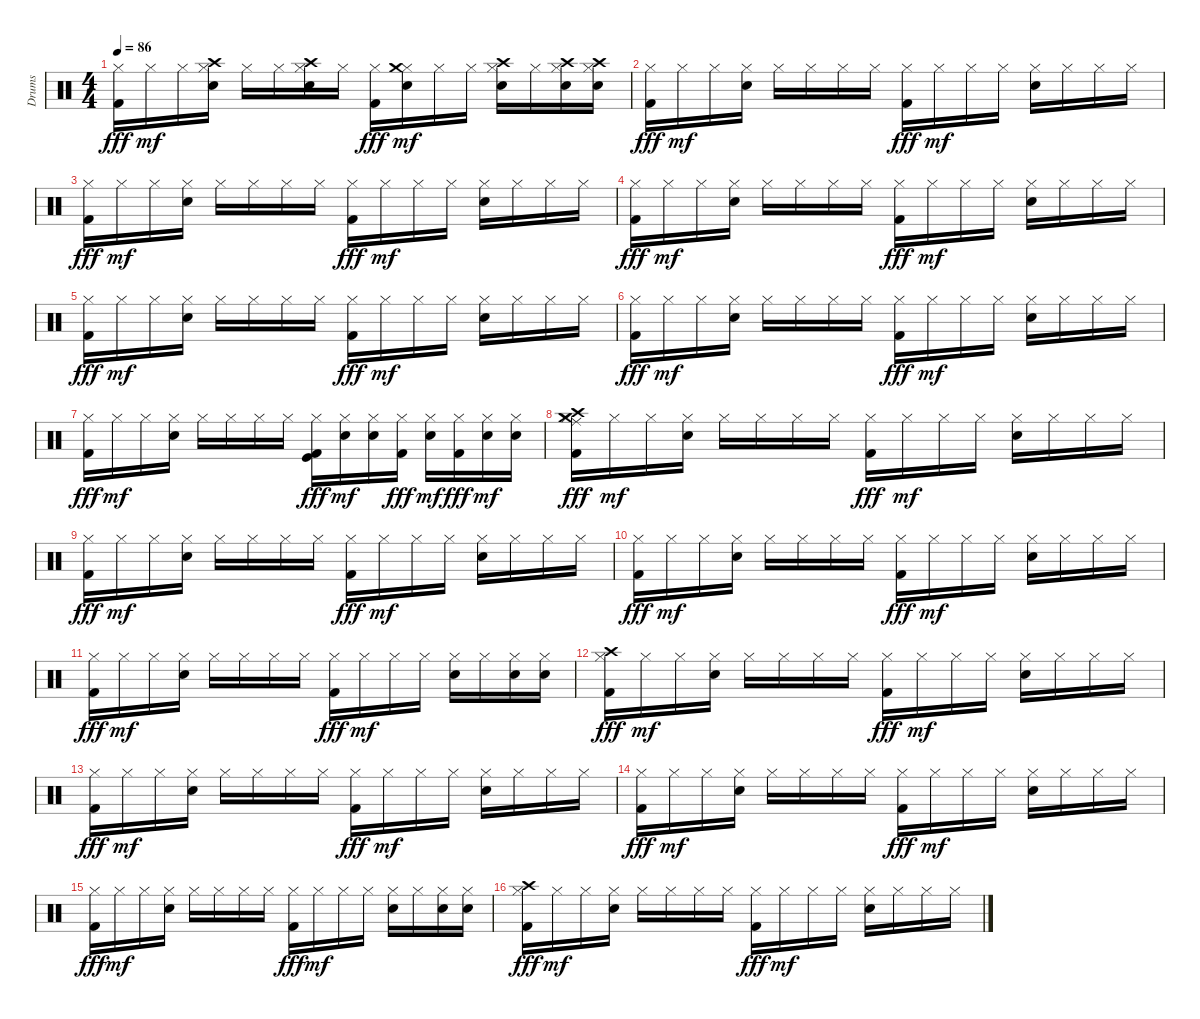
\track ("Drums" "Drums") {instrument percussion}
\staff {score}
\articulation defaults
\ts (4 4)
\tempo 86
\clef neutral
\ks c
("Hi-Hat (closed)" "Kick (hit) 2").16{dy fff} "Hi-Hat (closed)".16{dy mf} "Hi-Hat (closed)".16 ("Hi-Hat (closed)" "Snare (hit) 2" "Crash high (hit)").16 "Hi-Hat (closed)".16 "Hi-Hat (closed)".16 ("Hi-Hat (closed)" "Snare (hit) 2" "Crash high (hit)").16 "Hi-Hat (closed)".16 ("Hi-Hat (closed)" "Kick (hit) 2").16{dy fff} ("Hi-Hat (closed)" "Snare (hit) 2" "Crash medium (hit)").16{dy mf} "Hi-Hat (closed)".16 "Hi-Hat (closed)".16 ("Hi-Hat (closed)" "Snare (hit) 2" "Crash high (hit)").16 "Hi-Hat (closed)".16 ("Hi-Hat (closed)" "Snare (hit) 2" "Crash high (hit)").16 ("Hi-Hat (closed)" "Snare (hit) 2" "Crash high (hit)").16 |
("Hi-Hat (closed)" "Kick (hit) 2").16{dy fff} "Hi-Hat (closed)".16{dy mf} "Hi-Hat (closed)".16 ("Hi-Hat (closed)" "Snare (hit) 2").16 "Hi-Hat (closed)".16 "Hi-Hat (closed)".16 "Hi-Hat (closed)".16 "Hi-Hat (closed)".16 ("Hi-Hat (closed)" "Kick (hit) 2").16{dy fff} "Hi-Hat (closed)".16{dy mf} "Hi-Hat (closed)".16 "Hi-Hat (closed)".16 ("Hi-Hat (closed)" "Snare (hit) 2").16 "Hi-Hat (closed)".16 "Hi-Hat (closed)".16 "Hi-Hat (closed)".16 |
("Hi-Hat (closed)" "Kick (hit) 2").16{dy fff} "Hi-Hat (closed)".16{dy mf} "Hi-Hat (closed)".16 ("Hi-Hat (closed)" "Snare (hit) 2").16 "Hi-Hat (closed)".16 "Hi-Hat (closed)".16 "Hi-Hat (closed)".16 "Hi-Hat (closed)".16 ("Hi-Hat (closed)" "Kick (hit) 2").16{dy fff} "Hi-Hat (closed)".16{dy mf} "Hi-Hat (closed)".16 "Hi-Hat (closed)".16 ("Hi-Hat (closed)" "Snare (hit) 2").16 "Hi-Hat (closed)".16 "Hi-Hat (closed)".16 "Hi-Hat (closed)".16 |
("Hi-Hat (closed)" "Kick (hit) 2").16{dy fff} "Hi-Hat (closed)".16{dy mf} "Hi-Hat (closed)".16 ("Hi-Hat (closed)" "Snare (hit) 2").16 "Hi-Hat (closed)".16 "Hi-Hat (closed)".16 "Hi-Hat (closed)".16 "Hi-Hat (closed)".16 ("Hi-Hat (closed)" "Kick (hit) 2").16{dy fff} "Hi-Hat (closed)".16{dy mf} "Hi-Hat (closed)".16 "Hi-Hat (closed)".16 ("Hi-Hat (closed)" "Snare (hit) 2").16 "Hi-Hat (closed)".16 "Hi-Hat (closed)".16 "Hi-Hat (closed)".16 |
("Hi-Hat (closed)" "Kick (hit) 2").16{dy fff} "Hi-Hat (closed)".16{dy mf} "Hi-Hat (closed)".16 ("Hi-Hat (closed)" "Snare (hit) 2").16 "Hi-Hat (closed)".16 "Hi-Hat (closed)".16 "Hi-Hat (closed)".16 "Hi-Hat (closed)".16 ("Hi-Hat (closed)" "Kick (hit) 2").16{dy fff} "Hi-Hat (closed)".16{dy mf} "Hi-Hat (closed)".16 "Hi-Hat (closed)".16 ("Hi-Hat (closed)" "Snare (hit) 2").16 "Hi-Hat (closed)".16 "Hi-Hat (closed)".16 "Hi-Hat (closed)".16 |
("Hi-Hat (closed)" "Kick (hit) 2").16{dy fff} "Hi-Hat (closed)".16{dy mf} "Hi-Hat (closed)".16 ("Hi-Hat (closed)" "Snare (hit) 2").16 "Hi-Hat (closed)".16 "Hi-Hat (closed)".16 "Hi-Hat (closed)".16 "Hi-Hat (closed)".16 ("Hi-Hat (closed)" "Kick (hit) 2").16{dy fff} "Hi-Hat (closed)".16{dy mf} "Hi-Hat (closed)".16 "Hi-Hat (closed)".16 ("Hi-Hat (closed)" "Snare (hit) 2").16 "Hi-Hat (closed)".16 "Hi-Hat (closed)".16 "Hi-Hat (closed)".16 |
("Hi-Hat (closed)" "Kick (hit) 2").16{dy fff} "Hi-Hat (closed)".16{dy mf} "Hi-Hat (closed)".16 ("Hi-Hat (closed)" "Snare (hit) 2").16 "Hi-Hat (closed)".16 "Hi-Hat (closed)".16 "Hi-Hat (closed)".16 "Hi-Hat (closed)".16 ("Hi-Hat (closed)" "Kick (hit)" "Kick (hit) 2").16{dy fff} ("Hi-Hat (closed)" "Snare (hit) 2").16{dy mf} ("Hi-Hat (closed)" "Snare (hit) 2").16 ("Hi-Hat (closed)" "Kick (hit) 2").16{dy fff} ("Hi-Hat (closed)" "Snare (hit) 2").16{dy mf} ("Hi-Hat (closed)" "Kick (hit) 2").16{dy fff} ("Hi-Hat (closed)" "Snare (hit) 2").16{dy mf} ("Hi-Hat (closed)" "Snare (hit) 2").16 |
("Hi-Hat (closed)" "Crash high (hit)" "Ride (middle)" "Crash medium (hit)" "Kick (hit) 2").16{dy fff} "Hi-Hat (closed)".16{dy mf} "Hi-Hat (closed)".16 ("Hi-Hat (closed)" "Snare (hit) 2").16 "Hi-Hat (closed)".16 "Hi-Hat (closed)".16 "Hi-Hat (closed)".16 "Hi-Hat (closed)".16 ("Hi-Hat (closed)" "Kick (hit) 2").16{dy fff} "Hi-Hat (closed)".16{dy mf} "Hi-Hat (closed)".16 "Hi-Hat (closed)".16 ("Hi-Hat (closed)" "Snare (hit) 2").16 "Hi-Hat (closed)".16 "Hi-Hat (closed)".16 "Hi-Hat (closed)".16 |
("Hi-Hat (closed)" "Kick (hit) 2").16{dy fff} "Hi-Hat (closed)".16{dy mf} "Hi-Hat (closed)".16 ("Hi-Hat (closed)" "Snare (hit) 2").16 "Hi-Hat (closed)".16 "Hi-Hat (closed)".16 "Hi-Hat (closed)".16 "Hi-Hat (closed)".16 ("Hi-Hat (closed)" "Kick (hit) 2").16{dy fff} "Hi-Hat (closed)".16{dy mf} "Hi-Hat (closed)".16 "Hi-Hat (closed)".16 ("Hi-Hat (closed)" "Snare (hit) 2").16 "Hi-Hat (closed)".16 "Hi-Hat (closed)".16 "Hi-Hat (closed)".16 |
("Hi-Hat (closed)" "Kick (hit) 2").16{dy fff} "Hi-Hat (closed)".16{dy mf} "Hi-Hat (closed)".16 ("Hi-Hat (closed)" "Snare (hit) 2").16 "Hi-Hat (closed)".16 "Hi-Hat (closed)".16 "Hi-Hat (closed)".16 "Hi-Hat (closed)".16 ("Hi-Hat (closed)" "Kick (hit) 2").16{dy fff} "Hi-Hat (closed)".16{dy mf} "Hi-Hat (closed)".16 "Hi-Hat (closed)".16 ("Hi-Hat (closed)" "Snare (hit) 2").16 "Hi-Hat (closed)".16 "Hi-Hat (closed)".16 "Hi-Hat (closed)".16 |
("Hi-Hat (closed)" "Kick (hit) 2").16{dy fff} "Hi-Hat (closed)".16{dy mf} "Hi-Hat (closed)".16 ("Hi-Hat (closed)" "Snare (hit) 2").16 "Hi-Hat (closed)".16 "Hi-Hat (closed)".16 "Hi-Hat (closed)".16 "Hi-Hat (closed)".16 ("Hi-Hat (closed)" "Kick (hit) 2").16{dy fff} "Hi-Hat (closed)".16{dy mf} "Hi-Hat (closed)".16 "Hi-Hat (closed)".16 ("Hi-Hat (closed)" "Snare (hit) 2").16 "Hi-Hat (closed)".16 ("Hi-Hat (closed)" "Snare (hit) 2").16 ("Hi-Hat (closed)" "Snare (hit) 2").16 |
("Hi-Hat (closed)" "Crash high (hit)" "Kick (hit) 2").16{dy fff} "Hi-Hat (closed)".16{dy mf} "Hi-Hat (closed)".16 ("Hi-Hat (closed)" "Snare (hit) 2").16 "Hi-Hat (closed)".16 "Hi-Hat (closed)".16 "Hi-Hat (closed)".16 "Hi-Hat (closed)".16 ("Hi-Hat (closed)" "Kick (hit) 2").16{dy fff} "Hi-Hat (closed)".16{dy mf} "Hi-Hat (closed)".16 "Hi-Hat (closed)".16 ("Hi-Hat (closed)" "Snare (hit) 2").16 "Hi-Hat (closed)".16 "Hi-Hat (closed)".16 "Hi-Hat (closed)".16 |
("Hi-Hat (closed)" "Kick (hit) 2").16{dy fff} "Hi-Hat (closed)".16{dy mf} "Hi-Hat (closed)".16 ("Hi-Hat (closed)" "Snare (hit) 2").16 "Hi-Hat (closed)".16 "Hi-Hat (closed)".16 "Hi-Hat (closed)".16 "Hi-Hat (closed)".16 ("Hi-Hat (closed)" "Kick (hit) 2").16{dy fff} "Hi-Hat (closed)".16{dy mf} "Hi-Hat (closed)".16 "Hi-Hat (closed)".16 ("Hi-Hat (closed)" "Snare (hit) 2").16 "Hi-Hat (closed)".16 "Hi-Hat (closed)".16 "Hi-Hat (closed)".16 |
("Hi-Hat (closed)" "Kick (hit) 2").16{dy fff} "Hi-Hat (closed)".16{dy mf} "Hi-Hat (closed)".16 ("Hi-Hat (closed)" "Snare (hit) 2").16 "Hi-Hat (closed)".16 "Hi-Hat (closed)".16 "Hi-Hat (closed)".16 "Hi-Hat (closed)".16 ("Hi-Hat (closed)" "Kick (hit) 2").16{dy fff} "Hi-Hat (closed)".16{dy mf} "Hi-Hat (closed)".16 "Hi-Hat (closed)".16 ("Hi-Hat (closed)" "Snare (hit) 2").16 "Hi-Hat (closed)".16 "Hi-Hat (closed)".16 "Hi-Hat (closed)".16 |
("Hi-Hat (closed)" "Kick (hit) 2").16{dy fff} "Hi-Hat (closed)".16{dy mf} "Hi-Hat (closed)".16 ("Hi-Hat (closed)" "Snare (hit) 2").16 "Hi-Hat (closed)".16 "Hi-Hat (closed)".16 "Hi-Hat (closed)".16 "Hi-Hat (closed)".16 ("Hi-Hat (closed)" "Kick (hit) 2").16{dy fff} "Hi-Hat (closed)".16{dy mf} "Hi-Hat (closed)".16 "Hi-Hat (closed)".16 ("Hi-Hat (closed)" "Snare (hit) 2").16 "Hi-Hat (closed)".16 ("Hi-Hat (closed)" "Snare (hit) 2").16 ("Hi-Hat (closed)" "Snare (hit) 2").16 |
("Hi-Hat (closed)" "Crash high (hit)" "Kick (hit) 2").16{dy fff} "Hi-Hat (closed)".16{dy mf} "Hi-Hat (closed)".16 ("Hi-Hat (closed)" "Snare (hit) 2").16 "Hi-Hat (closed)".16 "Hi-Hat (closed)".16 "Hi-Hat (closed)".16 "Hi-Hat (closed)".16 ("Hi-Hat (closed)" "Kick (hit) 2").16{dy fff} "Hi-Hat (closed)".16{dy mf} "Hi-Hat (closed)".16 "Hi-Hat (closed)".16 ("Hi-Hat (closed)" "Snare (hit) 2").16 "Hi-Hat (closed)".16 "Hi-Hat (closed)".16 "Hi-Hat (closed)".16
